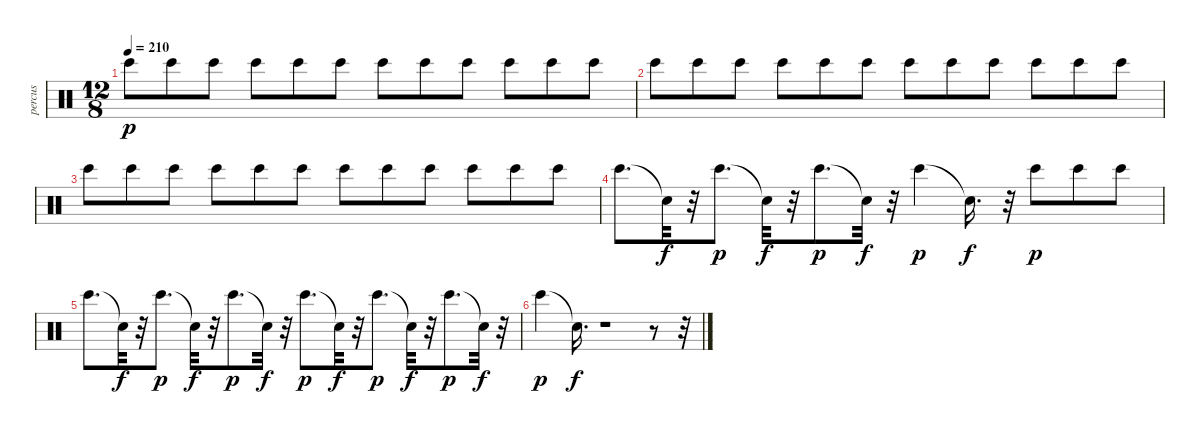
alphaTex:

\track ("percus" "percus") {instrument percussion}
\staff {score}
\articulation defaults
\ts (12 8)
\tempo 210
\clef neutral
\ks c "Bongo High (hit)".8{dy p} "Bongo High (hit)".8 "Bongo High (hit)".8 "Bongo High (hit)".8 "Bongo High (hit)".8 "Bongo High (hit)".8 "Bongo High (hit)".8 "Bongo High (hit)".8 "Bongo High (hit)".8 "Bongo High (hit)".8 "Bongo High (hit)".8 "Bongo High (hit)".8
|
"Bongo High (hit)".8 "Bongo High (hit)".8 "Bongo High (hit)".8 "Bongo High (hit)".8 "Bongo High (hit)".8 "Bongo High (hit)".8 "Bongo High (hit)".8 "Bongo High (hit)".8 "Bongo High (hit)".8 "Bongo High (hit)".8 "Bongo High (hit)".8 "Bongo High (hit)".8 |
"Bongo High (hit)".8 "Bongo High (hit)".8 "Bongo High (hit)".8 "Bongo High (hit)".8 "Bongo High (hit)".8 "Bongo High (hit)".8 "Bongo High (hit)".8 "Bongo High (hit)".8 "Bongo High (hit)".8 "Bongo High (hit)".8 "Bongo High (hit)".8 "Bongo High (hit)".8 |
"Bongo High (hit)".8{d} "Snare (hit)"{t}.32{dy f} r.32 "Bongo High (hit)".8{d dy p} "Snare (hit)"{t}.32{dy f} r.32 "Bongo High (hit)".8{d dy p} "Snare (hit)"{t}.32{dy f} r.32 "Bongo High (hit)".4{dy p} "Snare (hit)"{t}.16{d dy f} r.32 "Bongo High (hit)".8{dy p} "Bongo High (hit)".8 "Bongo High (hit)".8 |
"Bongo High (hit)".8{d} "Snare (hit)"{t}.32{dy f} r.32 "Bongo High (hit)".8{d dy p} "Snare (hit)"{t}.32{dy f} r.32 "Bongo High (hit)".8{d dy p} "Snare (hit)"{t}.32{dy f} r.32 "Bongo High (hit)".8{d dy p} "Snare (hit)"{t}.32{dy f} r.32 "Bongo High (hit)".8{d dy p} "Snare (hit)"{t}.32{dy f} r.32 "Bongo High (hit)".8{d dy p} "Snare (hit)"{t}.32{dy f} r.32 |
"Bongo High (hit)".4{dy p} "Snare (hit)"{t}.16{d dy f} r.1 r.8 r.32
